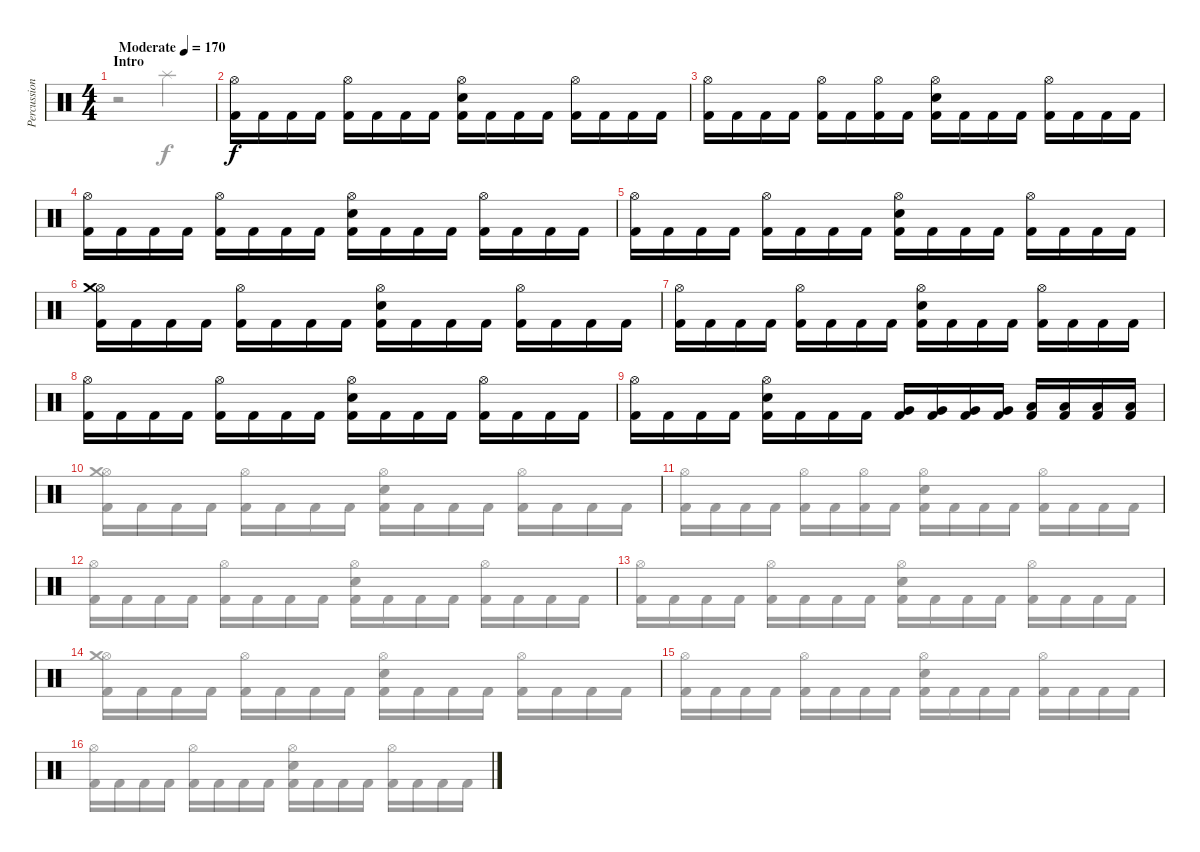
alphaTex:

\track ("Percussion" "Percussion") {instrument percussion}
\staff {score}
\articulation defaults
\voice
\ts (4 4)
\section ("" "Intro")
\tempo (170 "Moderate")
\clef neutral
\ks c
|
("Hi-Hat (open)" "Kick (hit) 2").16 "Kick (hit) 2".16 "Kick (hit) 2".16 "Kick (hit) 2".16 ("Hi-Hat (open)" "Kick (hit) 2").16 "Kick (hit) 2".16 "Kick (hit) 2".16 "Kick (hit) 2".16 ("Hi-Hat (open)" "Snare (hit) 2" "Kick (hit) 2").16 "Kick (hit) 2".16 "Kick (hit) 2".16 "Kick (hit) 2".16 ("Hi-Hat (open)" "Kick (hit) 2").16 "Kick (hit) 2".16 "Kick (hit) 2".16 "Kick (hit) 2".16 |
("Hi-Hat (open)" "Kick (hit) 2").16 "Kick (hit) 2".16 "Kick (hit) 2".16 "Kick (hit) 2".16 ("Hi-Hat (open)" "Kick (hit) 2").16 "Kick (hit) 2".16 ("Hi-Hat (open)" "Kick (hit) 2").16 "Kick (hit) 2".16 ("Hi-Hat (open)" "Snare (hit) 2" "Kick (hit) 2").16 "Kick (hit) 2".16 "Kick (hit) 2".16 "Kick (hit) 2".16 ("Hi-Hat (open)" "Kick (hit) 2").16 "Kick (hit) 2".16 "Kick (hit) 2".16 "Kick (hit) 2".16 |
("Hi-Hat (open)" "Kick (hit) 2").16 "Kick (hit) 2".16 "Kick (hit) 2".16 "Kick (hit) 2".16 ("Hi-Hat (open)" "Kick (hit) 2").16 "Kick (hit) 2".16 "Kick (hit) 2".16 "Kick (hit) 2".16 ("Hi-Hat (open)" "Snare (hit) 2" "Kick (hit) 2").16 "Kick (hit) 2".16 "Kick (hit) 2".16 "Kick (hit) 2".16 ("Hi-Hat (open)" "Kick (hit) 2").16 "Kick (hit) 2".16 "Kick (hit) 2".16 "Kick (hit) 2".16 |
("Hi-Hat (open)" "Kick (hit) 2").16 "Kick (hit) 2".16 "Kick (hit) 2".16 "Kick (hit) 2".16 ("Hi-Hat (open)" "Kick (hit) 2").16 "Kick (hit) 2".16 "Kick (hit) 2".16 "Kick (hit) 2".16 ("Hi-Hat (open)" "Snare (hit) 2" "Kick (hit) 2").16 "Kick (hit) 2".16 "Kick (hit) 2".16 "Kick (hit) 2".16 ("Hi-Hat (open)" "Kick (hit) 2").16 "Kick (hit) 2".16 "Kick (hit) 2".16 "Kick (hit) 2".16 |
("Hi-Hat (open)" "Crash medium (hit)" "Kick (hit) 2").16 "Kick (hit) 2".16 "Kick (hit) 2".16 "Kick (hit) 2".16 ("Hi-Hat (open)" "Kick (hit) 2").16 "Kick (hit) 2".16 "Kick (hit) 2".16 "Kick (hit) 2".16 ("Hi-Hat (open)" "Snare (hit) 2" "Kick (hit) 2").16 "Kick (hit) 2".16 "Kick (hit) 2".16 "Kick (hit) 2".16 ("Hi-Hat (open)" "Kick (hit) 2").16 "Kick (hit) 2".16 "Kick (hit) 2".16 "Kick (hit) 2".16 |
("Hi-Hat (open)" "Kick (hit) 2").16 "Kick (hit) 2".16 "Kick (hit) 2".16 "Kick (hit) 2".16 ("Hi-Hat (open)" "Kick (hit) 2").16 "Kick (hit) 2".16 "Kick (hit) 2".16 "Kick (hit) 2".16 ("Hi-Hat (open)" "Snare (hit) 2" "Kick (hit) 2").16 "Kick (hit) 2".16 "Kick (hit) 2".16 "Kick (hit) 2".16 ("Hi-Hat (open)" "Kick (hit) 2").16 "Kick (hit) 2".16 "Kick (hit) 2".16 "Kick (hit) 2".16 |
("Hi-Hat (open)" "Kick (hit) 2").16 "Kick (hit) 2".16 "Kick (hit) 2".16 "Kick (hit) 2".16 ("Hi-Hat (open)" "Kick (hit) 2").16 "Kick (hit) 2".16 "Kick (hit) 2".16 "Kick (hit) 2".16 ("Hi-Hat (open)" "Snare (hit) 2" "Kick (hit) 2").16 "Kick (hit) 2".16 "Kick (hit) 2".16 "Kick (hit) 2".16 ("Hi-Hat (open)" "Kick (hit) 2").16 "Kick (hit) 2".16 "Kick (hit) 2".16 "Kick (hit) 2".16 |
("Hi-Hat (open)" "Kick (hit) 2").16 "Kick (hit) 2".16 "Kick (hit) 2".16 "Kick (hit) 2".16 ("Hi-Hat (open)" "Snare (hit) 2" "Kick (hit) 2").16 "Kick (hit) 2".16 "Kick (hit) 2".16 "Kick (hit) 2".16 ("Very Low Tom (hit)" "Kick (hit) 2").16 ("Very Low Tom (hit)" "Kick (hit) 2").16 ("Very Low Tom (hit)" "Kick (hit) 2").16 ("Very Low Tom (hit)" "Kick (hit) 2").16 ("Low Floor Tom (hit)" "Kick (hit) 2").16 ("Low Floor Tom (hit)" "Kick (hit) 2").16 ("Low Floor Tom (hit)" "Kick (hit) 2").16 ("Low Floor Tom (hit)" "Kick (hit) 2").16 |
|
|
|
|
|
|
\voice
\clef neutral
\ottava regular
\simile none
\ks c
r.2{dy f} "Splash (hit)".2 |
|
|
|
|
|
|
|
|
("Hi-Hat (open)" "Crash medium (hit)" "Kick (hit) 2").16 "Kick (hit) 2".16 "Kick (hit) 2".16 "Kick (hit) 2".16 ("Hi-Hat (open)" "Kick (hit) 2").16 "Kick (hit) 2".16 "Kick (hit) 2".16 "Kick (hit) 2".16 ("Hi-Hat (open)" "Snare (hit) 2" "Kick (hit) 2").16 "Kick (hit) 2".16 "Kick (hit) 2".16 "Kick (hit) 2".16 ("Hi-Hat (open)" "Kick (hit) 2").16 "Kick (hit) 2".16 "Kick (hit) 2".16 "Kick (hit) 2".16 |
("Hi-Hat (open)" "Kick (hit) 2").16 "Kick (hit) 2".16 "Kick (hit) 2".16 "Kick (hit) 2".16 ("Hi-Hat (open)" "Kick (hit) 2").16 "Kick (hit) 2".16 ("Hi-Hat (open)" "Kick (hit) 2").16 "Kick (hit) 2".16 ("Hi-Hat (open)" "Snare (hit) 2" "Kick (hit) 2").16 "Kick (hit) 2".16 "Kick (hit) 2".16 "Kick (hit) 2".16 ("Hi-Hat (open)" "Kick (hit) 2").16 "Kick (hit) 2".16 "Kick (hit) 2".16 "Kick (hit) 2".16 |
("Hi-Hat (open)" "Kick (hit) 2").16 "Kick (hit) 2".16 "Kick (hit) 2".16 "Kick (hit) 2".16 ("Hi-Hat (open)" "Kick (hit) 2").16 "Kick (hit) 2".16 "Kick (hit) 2".16 "Kick (hit) 2".16 ("Hi-Hat (open)" "Snare (hit) 2" "Kick (hit) 2").16 "Kick (hit) 2".16 "Kick (hit) 2".16 "Kick (hit) 2".16 ("Hi-Hat (open)" "Kick (hit) 2").16 "Kick (hit) 2".16 "Kick (hit) 2".16 "Kick (hit) 2".16 |
("Hi-Hat (open)" "Kick (hit) 2").16 "Kick (hit) 2".16 "Kick (hit) 2".16 "Kick (hit) 2".16 ("Hi-Hat (open)" "Kick (hit) 2").16 "Kick (hit) 2".16 "Kick (hit) 2".16 "Kick (hit) 2".16 ("Hi-Hat (open)" "Snare (hit) 2" "Kick (hit) 2").16 "Kick (hit) 2".16 "Kick (hit) 2".16 "Kick (hit) 2".16 ("Hi-Hat (open)" "Kick (hit) 2").16 "Kick (hit) 2".16 "Kick (hit) 2".16 "Kick (hit) 2".16 |
("Hi-Hat (open)" "Crash medium (hit)" "Kick (hit) 2").16 "Kick (hit) 2".16 "Kick (hit) 2".16 "Kick (hit) 2".16 ("Hi-Hat (open)" "Kick (hit) 2").16 "Kick (hit) 2".16 "Kick (hit) 2".16 "Kick (hit) 2".16 ("Hi-Hat (open)" "Snare (hit) 2" "Kick (hit) 2").16 "Kick (hit) 2".16 "Kick (hit) 2".16 "Kick (hit) 2".16 ("Hi-Hat (open)" "Kick (hit) 2").16 "Kick (hit) 2".16 "Kick (hit) 2".16 "Kick (hit) 2".16 |
("Hi-Hat (open)" "Kick (hit) 2").16 "Kick (hit) 2".16 "Kick (hit) 2".16 "Kick (hit) 2".16 ("Hi-Hat (open)" "Kick (hit) 2").16 "Kick (hit) 2".16 "Kick (hit) 2".16 "Kick (hit) 2".16 ("Hi-Hat (open)" "Snare (hit) 2" "Kick (hit) 2").16 "Kick (hit) 2".16 "Kick (hit) 2".16 "Kick (hit) 2".16 ("Hi-Hat (open)" "Kick (hit) 2").16 "Kick (hit) 2".16 "Kick (hit) 2".16 "Kick (hit) 2".16 |
("Hi-Hat (open)" "Kick (hit) 2").16 "Kick (hit) 2".16 "Kick (hit) 2".16 "Kick (hit) 2".16 ("Hi-Hat (open)" "Kick (hit) 2").16 "Kick (hit) 2".16 "Kick (hit) 2".16 "Kick (hit) 2".16 ("Hi-Hat (open)" "Snare (hit) 2" "Kick (hit) 2").16 "Kick (hit) 2".16 "Kick (hit) 2".16 "Kick (hit) 2".16 ("Hi-Hat (open)" "Kick (hit) 2").16 "Kick (hit) 2".16 "Kick (hit) 2".16 "Kick (hit) 2".16
